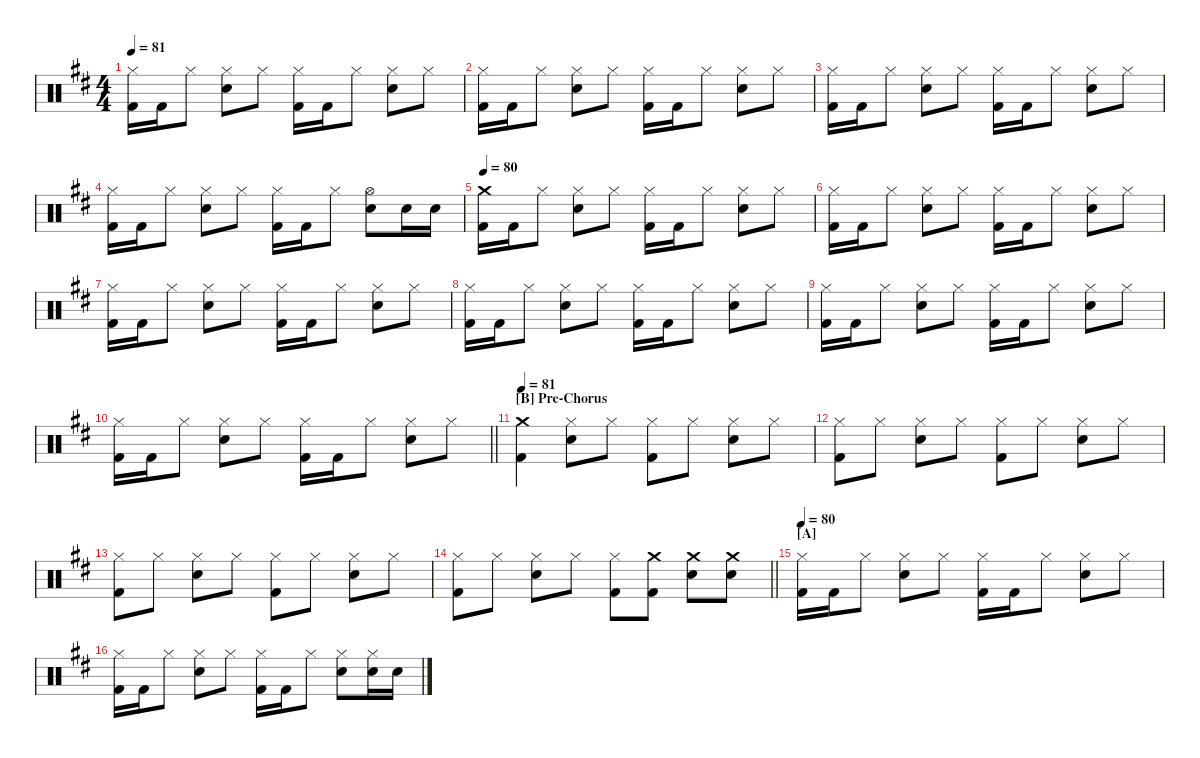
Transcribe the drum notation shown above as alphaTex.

\defaultSystemsLayout 4
\hideDynamics
\bracketExtendMode nobrackets
\singleTrackTrackNamePolicy hidden
\multiTrackTrackNamePolicy hidden
\otherSystemsTrackNameOrientation horizontal
\track ("Drumkit" "Drums") {defaultSystemsLayout 4 instrument percussion}
\staff {score}
\articulation defaults
\ts (4 4)
\tempo 81
\clef neutral
\ks d
("Kick (hit) 2"{acc forcenatural} "Hi-Hat (closed)"{acc forcenatural}).16{dy f beam Down} "Kick (hit) 2"{acc forcenatural}.16{beam Down} "Hi-Hat (closed)"{acc forcenatural}.8{beam Down} ("Snare (hit) 2"{acc forcenatural} "Hi-Hat (closed)"{acc forcenatural}).8{beam Down} "Hi-Hat (closed)"{acc forcenatural}.8{beam Down} ("Kick (hit) 2"{acc forcenatural} "Hi-Hat (closed)"{acc forcenatural}).16{beam Down} "Kick (hit) 2"{acc forcenatural}.16{beam Down} "Hi-Hat (closed)"{acc forcenatural}.8{beam Down} ("Snare (hit) 2"{acc forcenatural} "Hi-Hat (closed)"{acc forcenatural}).8{beam Down} "Hi-Hat (closed)"{acc forcenatural}.8{beam Down} |
("Kick (hit) 2"{acc forcenatural} "Hi-Hat (closed)"{acc forcenatural}).16{beam Down} "Kick (hit) 2"{acc forcenatural}.16{beam Down} "Hi-Hat (closed)"{acc forcenatural}.8{beam Down} ("Snare (hit) 2"{acc forcenatural} "Hi-Hat (closed)"{acc forcenatural}).8{beam Down} "Hi-Hat (closed)"{acc forcenatural}.8{beam Down} ("Kick (hit) 2"{acc forcenatural} "Hi-Hat (closed)"{acc forcenatural}).16{beam Down} "Kick (hit) 2"{acc forcenatural}.16{beam Down} "Hi-Hat (closed)"{acc forcenatural}.8{beam Down} ("Snare (hit) 2"{acc forcenatural} "Hi-Hat (closed)"{acc forcenatural}).8{beam Down} "Hi-Hat (closed)"{acc forcenatural}.8{beam Down} |
("Kick (hit) 2"{acc forcenatural} "Hi-Hat (closed)"{acc forcenatural}).16{beam Down} "Kick (hit) 2"{acc forcenatural}.16{beam Down} "Hi-Hat (closed)"{acc forcenatural}.8{beam Down} ("Snare (hit) 2"{acc forcenatural} "Hi-Hat (closed)"{acc forcenatural}).8{beam Down} "Hi-Hat (closed)"{acc forcenatural}.8{beam Down} ("Kick (hit) 2"{acc forcenatural} "Hi-Hat (closed)"{acc forcenatural}).16{beam Down} "Kick (hit) 2"{acc forcenatural}.16{beam Down} "Hi-Hat (closed)"{acc forcenatural}.8{beam Down} ("Snare (hit) 2"{acc forcenatural} "Hi-Hat (closed)"{acc forcenatural}).8{beam Down} "Hi-Hat (closed)"{acc forcenatural}.8{beam Down} |
("Kick (hit) 2"{acc forcenatural} "Hi-Hat (closed)"{acc forcenatural}).16{beam Down} "Kick (hit) 2"{acc forcenatural}.16{beam Down} "Hi-Hat (closed)"{acc forcenatural}.8{beam Down} ("Snare (hit) 2"{acc forcenatural} "Hi-Hat (closed)"{acc forcenatural}).8{beam Down} "Hi-Hat (closed)"{acc forcenatural}.8{beam Down} ("Kick (hit) 2"{acc forcenatural} "Hi-Hat (closed)"{acc forcenatural}).16{beam Down} "Kick (hit) 2"{acc forcenatural}.16{beam Down} "Hi-Hat (closed)"{acc forcenatural}.8{beam Down} ("Snare (hit) 2"{acc forcenatural} "Hi-Hat (open)"{acc forcenatural}).8{beam Down} "Snare (hit) 2"{acc forcenatural}.16{beam Down} "Snare (hit) 2"{acc forcenatural}.16{beam Down} |
\tempo 80
("Kick (hit) 2"{acc forcenatural} "Crash medium (hit)"{acc forcenatural}).16{beam Down} "Kick (hit) 2"{acc forcenatural}.16{beam Down} "Hi-Hat (closed)"{acc forcenatural}.8{beam Down} ("Snare (hit) 2"{acc forcenatural} "Hi-Hat (closed)"{acc forcenatural}).8{beam Down} "Hi-Hat (closed)"{acc forcenatural}.8{beam Down} ("Kick (hit) 2"{acc forcenatural} "Hi-Hat (closed)"{acc forcenatural}).16{beam Down} "Kick (hit) 2"{acc forcenatural}.16{beam Down} "Hi-Hat (closed)"{acc forcenatural}.8{beam Down} ("Snare (hit) 2"{acc forcenatural} "Hi-Hat (closed)"{acc forcenatural}).8{beam Down} "Hi-Hat (closed)"{acc forcenatural}.8{beam Down} |
("Kick (hit) 2"{acc forcenatural} "Hi-Hat (closed)"{acc forcenatural}).16{beam Down} "Kick (hit) 2"{acc forcenatural}.16{beam Down} "Hi-Hat (closed)"{acc forcenatural}.8{beam Down} ("Snare (hit) 2"{acc forcenatural} "Hi-Hat (closed)"{acc forcenatural}).8{beam Down} "Hi-Hat (closed)"{acc forcenatural}.8{beam Down} ("Kick (hit) 2"{acc forcenatural} "Hi-Hat (closed)"{acc forcenatural}).16{beam Down} "Kick (hit) 2"{acc forcenatural}.16{beam Down} "Hi-Hat (closed)"{acc forcenatural}.8{beam Down} ("Snare (hit) 2"{acc forcenatural} "Hi-Hat (closed)"{acc forcenatural}).8{beam Down} "Hi-Hat (closed)"{acc forcenatural}.8{beam Down} |
("Kick (hit) 2"{acc forcenatural} "Hi-Hat (closed)"{acc forcenatural}).16{beam Down} "Kick (hit) 2"{acc forcenatural}.16{beam Down} "Hi-Hat (closed)"{acc forcenatural}.8{beam Down} ("Snare (hit) 2"{acc forcenatural} "Hi-Hat (closed)"{acc forcenatural}).8{beam Down} "Hi-Hat (closed)"{acc forcenatural}.8{beam Down} ("Kick (hit) 2"{acc forcenatural} "Hi-Hat (closed)"{acc forcenatural}).16{beam Down} "Kick (hit) 2"{acc forcenatural}.16{beam Down} "Hi-Hat (closed)"{acc forcenatural}.8{beam Down} ("Snare (hit) 2"{acc forcenatural} "Hi-Hat (closed)"{acc forcenatural}).8{beam Down} "Hi-Hat (closed)"{acc forcenatural}.8{beam Down} |
("Kick (hit) 2"{acc forcenatural} "Hi-Hat (closed)"{acc forcenatural}).16{beam Down} "Kick (hit) 2"{acc forcenatural}.16{beam Down} "Hi-Hat (closed)"{acc forcenatural}.8{beam Down} ("Snare (hit) 2"{acc forcenatural} "Hi-Hat (closed)"{acc forcenatural}).8{beam Down} "Hi-Hat (closed)"{acc forcenatural}.8{beam Down} ("Kick (hit) 2"{acc forcenatural} "Hi-Hat (closed)"{acc forcenatural}).16{beam Down} "Kick (hit) 2"{acc forcenatural}.16{beam Down} "Hi-Hat (closed)"{acc forcenatural}.8{beam Down} ("Snare (hit) 2"{acc forcenatural} "Hi-Hat (closed)"{acc forcenatural}).8{beam Down} "Hi-Hat (closed)"{acc forcenatural}.8{beam Down} |
("Kick (hit) 2"{acc forcenatural} "Hi-Hat (closed)"{acc forcenatural}).16{beam Down} "Kick (hit) 2"{acc forcenatural}.16{beam Down} "Hi-Hat (closed)"{acc forcenatural}.8{beam Down} ("Snare (hit) 2"{acc forcenatural} "Hi-Hat (closed)"{acc forcenatural}).8{beam Down} "Hi-Hat (closed)"{acc forcenatural}.8{beam Down} ("Kick (hit) 2"{acc forcenatural} "Hi-Hat (closed)"{acc forcenatural}).16{beam Down} "Kick (hit) 2"{acc forcenatural}.16{beam Down} "Hi-Hat (closed)"{acc forcenatural}.8{beam Down} ("Snare (hit) 2"{acc forcenatural} "Hi-Hat (closed)"{acc forcenatural}).8{beam Down} "Hi-Hat (closed)"{acc forcenatural}.8{beam Down} |
\barLineRight lightlight
("Kick (hit) 2"{acc forcenatural} "Hi-Hat (closed)"{acc forcenatural}).16{beam Down} "Kick (hit) 2"{acc forcenatural}.16{beam Down} "Hi-Hat (closed)"{acc forcenatural}.8{beam Down} ("Snare (hit) 2"{acc forcenatural} "Hi-Hat (closed)"{acc forcenatural}).8{beam Down} "Hi-Hat (closed)"{acc forcenatural}.8{beam Down} ("Kick (hit) 2"{acc forcenatural} "Hi-Hat (closed)"{acc forcenatural}).16{beam Down} "Kick (hit) 2"{acc forcenatural}.16{beam Down} "Hi-Hat (closed)"{acc forcenatural}.8{beam Down} ("Snare (hit) 2"{acc forcenatural} "Hi-Hat (closed)"{acc forcenatural}).8{beam Down} "Hi-Hat (closed)"{acc forcenatural}.8{beam Down} |
\section ("B" "Pre-Chorus")
\tempo 81
("Kick (hit) 2"{acc forcenatural} "Crash medium (hit)"{acc forcenatural}).4{beam Down} ("Snare (hit) 2"{acc forcenatural} "Hi-Hat (closed)"{acc forcenatural}).8{beam Down} "Hi-Hat (closed)"{acc forcenatural}.8{beam Down} ("Kick (hit) 2"{acc forcenatural} "Hi-Hat (closed)"{acc forcenatural}).8{beam Down} "Hi-Hat (closed)"{acc forcenatural}.8{beam Down} ("Snare (hit) 2"{acc forcenatural} "Hi-Hat (closed)"{acc forcenatural}).8{beam Down} "Hi-Hat (closed)"{acc forcenatural}.8{beam Down} |
("Kick (hit) 2"{acc forcenatural} "Hi-Hat (closed)"{acc forcenatural}).8{beam Down} "Hi-Hat (closed)"{acc forcenatural}.8{beam Down} ("Snare (hit) 2"{acc forcenatural} "Hi-Hat (closed)"{acc forcenatural}).8{beam Down} "Hi-Hat (closed)"{acc forcenatural}.8{beam Down} ("Kick (hit) 2"{acc forcenatural} "Hi-Hat (closed)"{acc forcenatural}).8{beam Down} "Hi-Hat (closed)"{acc forcenatural}.8{beam Down} ("Snare (hit) 2"{acc forcenatural} "Hi-Hat (closed)"{acc forcenatural}).8{beam Down} "Hi-Hat (closed)"{acc forcenatural}.8{beam Down} |
("Kick (hit) 2"{acc forcenatural} "Hi-Hat (closed)"{acc forcenatural}).8{beam Down} "Hi-Hat (closed)"{acc forcenatural}.8{beam Down} ("Snare (hit) 2"{acc forcenatural} "Hi-Hat (closed)"{acc forcenatural}).8{beam Down} "Hi-Hat (closed)"{acc forcenatural}.8{beam Down} ("Kick (hit) 2"{acc forcenatural} "Hi-Hat (closed)"{acc forcenatural}).8{beam Down} "Hi-Hat (closed)"{acc forcenatural}.8{beam Down} ("Snare (hit) 2"{acc forcenatural} "Hi-Hat (closed)"{acc forcenatural}).8{beam Down} "Hi-Hat (closed)"{acc forcenatural}.8{beam Down} |
\barLineRight lightlight
("Kick (hit) 2"{acc forcenatural} "Hi-Hat (closed)"{acc forcenatural}).8{beam Down} "Hi-Hat (closed)"{acc forcenatural}.8{beam Down} ("Snare (hit) 2"{acc forcenatural} "Hi-Hat (closed)"{acc forcenatural}).8{beam Down} "Hi-Hat (closed)"{acc forcenatural}.8{beam Down} ("Kick (hit) 2"{acc forcenatural} "Hi-Hat (closed)"{acc forcenatural}).8{beam Down} ("Kick (hit) 2"{acc forcenatural} "Crash medium (hit)"{acc forcenatural}).8{beam Down} ("Snare (hit) 2"{acc forcenatural} "Crash medium (hit)"{acc forcenatural}).8{beam Down} ("Snare (hit) 2"{acc forcenatural} "Crash medium (hit)"{acc forcenatural}).8{beam Down} |
\section ("A" "")
\tempo 80
("Kick (hit) 2"{acc forcenatural} "Hi-Hat (closed)"{acc forcenatural}).16{beam Down} "Kick (hit) 2"{acc forcenatural}.16{beam Down} "Hi-Hat (closed)"{acc forcenatural}.8{beam Down} ("Snare (hit) 2"{acc forcenatural} "Hi-Hat (closed)"{acc forcenatural}).8{beam Down} "Hi-Hat (closed)"{acc forcenatural}.8{beam Down} ("Kick (hit) 2"{acc forcenatural} "Hi-Hat (closed)"{acc forcenatural}).16{beam Down} "Kick (hit) 2"{acc forcenatural}.16{beam Down} "Hi-Hat (closed)"{acc forcenatural}.8{beam Down} ("Snare (hit) 2"{acc forcenatural} "Hi-Hat (closed)"{acc forcenatural}).8{beam Down} "Hi-Hat (closed)"{acc forcenatural}.8{beam Down} |
("Kick (hit) 2"{acc forcenatural} "Hi-Hat (closed)"{acc forcenatural}).16{beam Down} "Kick (hit) 2"{acc forcenatural}.16{beam Down} "Hi-Hat (closed)"{acc forcenatural}.8{beam Down} ("Snare (hit) 2"{acc forcenatural} "Hi-Hat (closed)"{acc forcenatural}).8{beam Down} "Hi-Hat (closed)"{acc forcenatural}.8{beam Down} ("Kick (hit) 2"{acc forcenatural} "Hi-Hat (closed)"{acc forcenatural}).16{beam Down} "Kick (hit) 2"{acc forcenatural}.16{beam Down} "Hi-Hat (closed)"{acc forcenatural}.8{beam Down} ("Snare (hit) 2"{acc forcenatural} "Hi-Hat (closed)"{acc forcenatural}).8{beam Down} ("Snare (hit) 2"{acc forcenatural} "Hi-Hat (closed)"{acc forcenatural}).16{beam Down} "Snare (hit) 2"{acc forcenatural}.16{beam Down}
